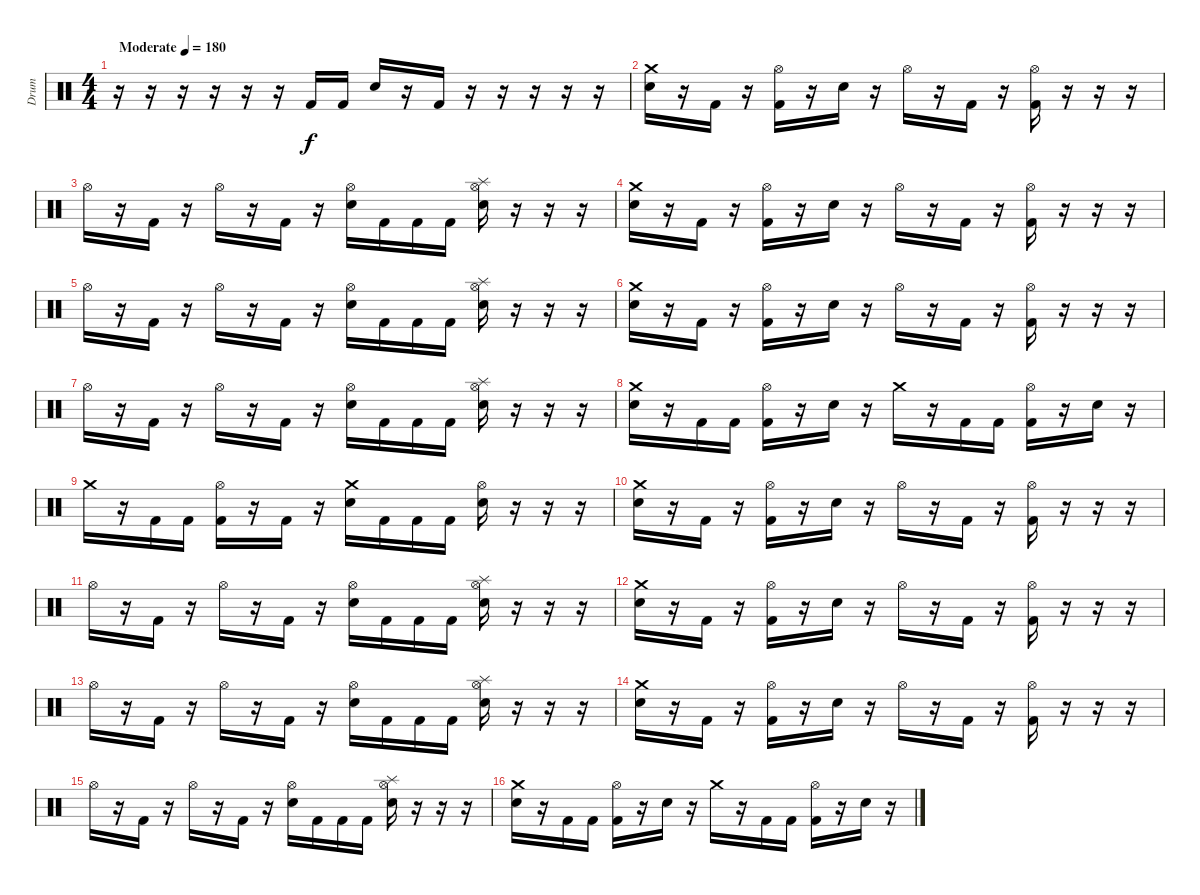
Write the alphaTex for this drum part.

\track ("Drum" "Drum") {instrument percussion}
\staff {score}
\articulation defaults
\ts (4 4)
\tempo (180 "Moderate")
\clef neutral
\ks c
r.16{dy f} r.16 r.16 r.16 r.16 r.16 "Kick (hit) 2".16 "Kick (hit) 2".16 "Electric Snare (hit)".16 r.16 "Kick (hit) 2".16 r.16 r.16 r.16 r.16 r.16 |
("Crash medium (hit)" "Electric Snare (hit)").16 r.16 "Kick (hit) 2".16 r.16 ("Hi-Hat (open)" "Kick (hit) 2").16 r.16 "Electric Snare (hit)".16 r.16 "Hi-Hat (open)".16 r.16 "Kick (hit) 2".16 r.16 ("Hi-Hat (open)" "Kick (hit) 2").16 r.16 r.16 r.16 |
"Hi-Hat (open)".16 r.16 "Kick (hit) 2".16 r.16 "Hi-Hat (open)".16 r.16 "Kick (hit) 2".16 r.16 ("Hi-Hat (open)" "Electric Snare (hit)").16 "Kick (hit) 2".16 "Kick (hit) 2".16 "Kick (hit) 2".16 ("Hi-Hat (open)" "Splash (hit)" "Electric Snare (hit)").16 r.16 r.16 r.16 |
("Crash medium (hit)" "Electric Snare (hit)").16 r.16 "Kick (hit) 2".16 r.16 ("Hi-Hat (open)" "Kick (hit) 2").16 r.16 "Electric Snare (hit)".16 r.16 "Hi-Hat (open)".16 r.16 "Kick (hit) 2".16 r.16 ("Hi-Hat (open)" "Kick (hit) 2").16 r.16 r.16 r.16 |
"Hi-Hat (open)".16 r.16 "Kick (hit) 2".16 r.16 "Hi-Hat (open)".16 r.16 "Kick (hit) 2".16 r.16 ("Hi-Hat (open)" "Electric Snare (hit)").16 "Kick (hit) 2".16 "Kick (hit) 2".16 "Kick (hit) 2".16 ("Hi-Hat (open)" "Splash (hit)" "Electric Snare (hit)").16 r.16 r.16 r.16 |
("Crash medium (hit)" "Electric Snare (hit)").16 r.16 "Kick (hit) 2".16 r.16 ("Hi-Hat (open)" "Kick (hit) 2").16 r.16 "Electric Snare (hit)".16 r.16 "Hi-Hat (open)".16 r.16 "Kick (hit) 2".16 r.16 ("Hi-Hat (open)" "Kick (hit) 2").16 r.16 r.16 r.16 |
"Hi-Hat (open)".16 r.16 "Kick (hit) 2".16 r.16 "Hi-Hat (open)".16 r.16 "Kick (hit) 2".16 r.16 ("Hi-Hat (open)" "Electric Snare (hit)").16 "Kick (hit) 2".16 "Kick (hit) 2".16 "Kick (hit) 2".16 ("Hi-Hat (open)" "Splash (hit)" "Electric Snare (hit)").16 r.16 r.16 r.16 |
("Crash medium (hit)" "Electric Snare (hit)").16 r.16 "Kick (hit) 2".16 "Kick (hit) 2".16 ("Hi-Hat (open)" "Kick (hit) 2").16 r.16 "Electric Snare (hit)".16 r.16 "Crash medium (hit)".16 r.16 "Kick (hit) 2".16 "Kick (hit) 2".16 ("Hi-Hat (open)" "Kick (hit) 2").16 r.16 "Electric Snare (hit)".16 r.16 |
"Crash medium (hit)".16 r.16 "Kick (hit) 2".16 "Kick (hit) 2".16 ("Hi-Hat (open)" "Kick (hit) 2").16 r.16 "Kick (hit) 2".16 r.16 ("Crash medium (hit)" "Electric Snare (hit)").16 "Kick (hit) 2".16 "Kick (hit) 2".16 "Kick (hit) 2".16 ("Hi-Hat (open)" "Electric Snare (hit)").16 r.16 r.16 r.16 |
("Crash medium (hit)" "Electric Snare (hit)").16 r.16 "Kick (hit) 2".16 r.16 ("Hi-Hat (open)" "Kick (hit) 2").16 r.16 "Electric Snare (hit)".16 r.16 "Hi-Hat (open)".16 r.16 "Kick (hit) 2".16 r.16 ("Hi-Hat (open)" "Kick (hit) 2").16 r.16 r.16 r.16 |
"Hi-Hat (open)".16 r.16 "Kick (hit) 2".16 r.16 "Hi-Hat (open)".16 r.16 "Kick (hit) 2".16 r.16 ("Hi-Hat (open)" "Electric Snare (hit)").16 "Kick (hit) 2".16 "Kick (hit) 2".16 "Kick (hit) 2".16 ("Hi-Hat (open)" "Splash (hit)" "Electric Snare (hit)").16 r.16 r.16 r.16 |
("Crash medium (hit)" "Electric Snare (hit)").16 r.16 "Kick (hit) 2".16 r.16 ("Hi-Hat (open)" "Kick (hit) 2").16 r.16 "Electric Snare (hit)".16 r.16 "Hi-Hat (open)".16 r.16 "Kick (hit) 2".16 r.16 ("Hi-Hat (open)" "Kick (hit) 2").16 r.16 r.16 r.16 |
"Hi-Hat (open)".16 r.16 "Kick (hit) 2".16 r.16 "Hi-Hat (open)".16 r.16 "Kick (hit) 2".16 r.16 ("Hi-Hat (open)" "Electric Snare (hit)").16 "Kick (hit) 2".16 "Kick (hit) 2".16 "Kick (hit) 2".16 ("Hi-Hat (open)" "Splash (hit)" "Electric Snare (hit)").16 r.16 r.16 r.16 |
("Crash medium (hit)" "Electric Snare (hit)").16 r.16 "Kick (hit) 2".16 r.16 ("Hi-Hat (open)" "Kick (hit) 2").16 r.16 "Electric Snare (hit)".16 r.16 "Hi-Hat (open)".16 r.16 "Kick (hit) 2".16 r.16 ("Hi-Hat (open)" "Kick (hit) 2").16 r.16 r.16 r.16 |
"Hi-Hat (open)".16 r.16 "Kick (hit) 2".16 r.16 "Hi-Hat (open)".16 r.16 "Kick (hit) 2".16 r.16 ("Hi-Hat (open)" "Electric Snare (hit)").16 "Kick (hit) 2".16 "Kick (hit) 2".16 "Kick (hit) 2".16 ("Hi-Hat (open)" "Splash (hit)" "Electric Snare (hit)").16 r.16 r.16 r.16 |
("Crash medium (hit)" "Electric Snare (hit)").16 r.16 "Kick (hit) 2".16 "Kick (hit) 2".16 ("Hi-Hat (open)" "Kick (hit) 2").16 r.16 "Electric Snare (hit)".16 r.16 "Crash medium (hit)".16 r.16 "Kick (hit) 2".16 "Kick (hit) 2".16 ("Hi-Hat (open)" "Kick (hit) 2").16 r.16 "Electric Snare (hit)".16 r.16
